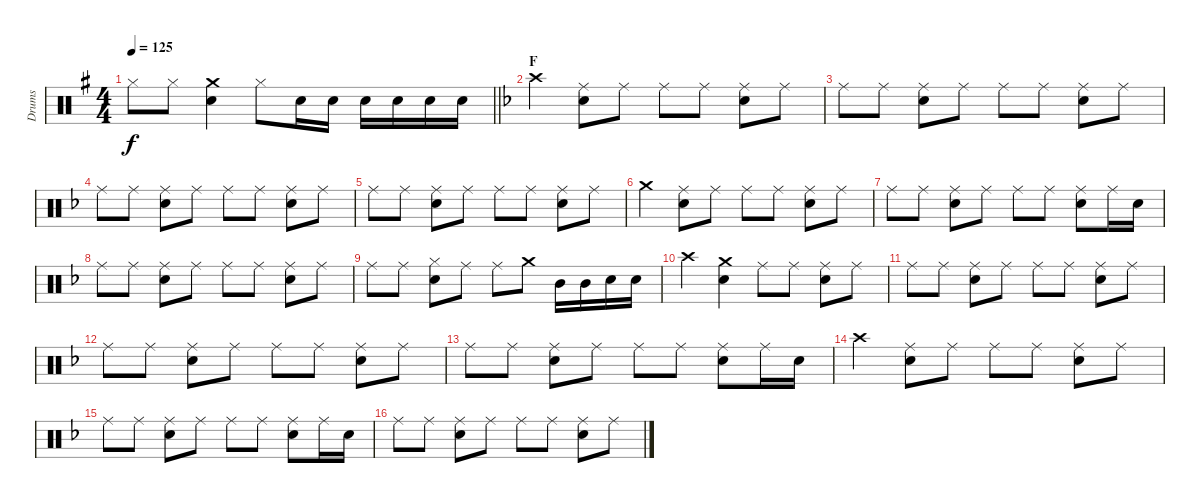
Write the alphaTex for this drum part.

\track ("Drums" "Drums") {instrument percussion}
\staff {score}
\articulation defaults
\ts (4 4)
\tempo 125
\clef neutral
\barLineRight lightlight
\ks g "Hi-Hat (closed)".8{dy f} "Hi-Hat (closed)".8
("Crash medium (hit)" "Snare (hit) 2").4 "Hi-Hat (closed)".8 "Snare (hit) 2".16 "Snare (hit) 2".16 "Snare (hit) 2".16 "Snare (hit) 2".16 "Snare (hit) 2".16 "Snare (hit) 2".16 |
\section ("" "F")
\ks f "Crash high (hit)".4
("Ride (middle)" "Snare (hit) 2").8 "Ride (middle)".8 "Ride (middle)".8 "Ride (middle)".8 ("Ride (middle)" "Snare (hit) 2").8 "Ride (middle)".8 |
"Ride (middle)".8 "Ride (middle)".8 ("Ride (middle)" "Snare (hit) 2").8 "Ride (middle)".8 "Ride (middle)".8 "Ride (middle)".8 ("Ride (middle)" "Snare (hit) 2").8 "Ride (middle)".8 |
"Ride (middle)".8 "Ride (middle)".8 ("Ride (middle)" "Snare (hit) 2").8 "Ride (middle)".8 "Ride (middle)".8 "Ride (middle)".8 ("Ride (middle)" "Snare (hit) 2").8 "Ride (middle)".8 |
"Ride (middle)".8 "Ride (middle)".8 ("Ride (middle)" "Snare (hit) 2").8 "Ride (middle)".8 "Ride (middle)".8 "Ride (middle)".8 ("Ride (middle)" "Snare (hit) 2").8 "Ride (middle)".8 |
"Crash medium (hit)".4 ("Ride (middle)" "Snare (hit) 2").8 "Ride (middle)".8 "Ride (middle)".8 "Ride (middle)".8 ("Ride (middle)" "Snare (hit) 2").8 "Ride (middle)".8 |
"Ride (middle)".8 "Ride (middle)".8 ("Ride (middle)" "Snare (hit) 2").8 "Ride (middle)".8 "Ride (middle)".8 "Ride (middle)".8 ("Ride (middle)" "Snare (hit) 2").8 "Ride (middle)".16 "Snare (hit) 2".16 |
"Ride (middle)".8 "Ride (middle)".8 ("Ride (middle)" "Snare (hit) 2").8 "Ride (middle)".8 "Ride (middle)".8 "Ride (middle)".8 ("Ride (middle)" "Snare (hit) 2").8 "Ride (middle)".8 |
"Ride (middle)".8 "Ride (middle)".8 ("Hi-Hat (closed)" "Snare (hit) 2").8 "Ride (middle)".8 "Ride (middle)".8 "Crash medium (hit)".8 "Mid Tom (hit)".16 "Mid Tom (hit)".16 "Snare (hit) 2".16 "Snare (hit) 2".16 |
"Crash high (hit)".4 ("Crash medium (hit)" "Snare (hit) 2").4 "Ride (middle)".8 "Ride (middle)".8 ("Ride (middle)" "Snare (hit) 2").8 "Ride (middle)".8 |
"Ride (middle)".8 "Ride (middle)".8 ("Ride (middle)" "Snare (hit) 2").8 "Ride (middle)".8 "Ride (middle)".8 "Ride (middle)".8 ("Ride (middle)" "Snare (hit) 2").8 "Ride (middle)".8 |
"Ride (middle)".8 "Ride (middle)".8 ("Ride (middle)" "Snare (hit) 2").8 "Ride (middle)".8 "Ride (middle)".8 "Ride (middle)".8 ("Ride (middle)" "Snare (hit) 2").8 "Ride (middle)".8 |
"Ride (middle)".8 "Ride (middle)".8 ("Ride (middle)" "Snare (hit) 2").8 "Ride (middle)".8 "Ride (middle)".8 "Ride (middle)".8 ("Ride (middle)" "Snare (hit) 2").8 "Ride (middle)".16 "Snare (hit) 2".16 |
"Crash high (hit)".4 ("Ride (middle)" "Snare (hit) 2").8 "Ride (middle)".8 "Ride (middle)".8 "Ride (middle)".8 ("Ride (middle)" "Snare (hit) 2").8 "Ride (middle)".8 |
"Ride (middle)".8 "Ride (middle)".8 ("Ride (middle)" "Snare (hit) 2").8 "Ride (middle)".8 "Ride (middle)".8 "Ride (middle)".8 ("Ride (middle)" "Snare (hit) 2").8 "Ride (middle)".16 "Snare (hit) 2".16 |
"Ride (middle)".8 "Ride (middle)".8 ("Ride (middle)" "Snare (hit) 2").8 "Ride (middle)".8 "Ride (middle)".8 "Ride (middle)".8 ("Ride (middle)" "Snare (hit) 2").8 "Ride (middle)".8
